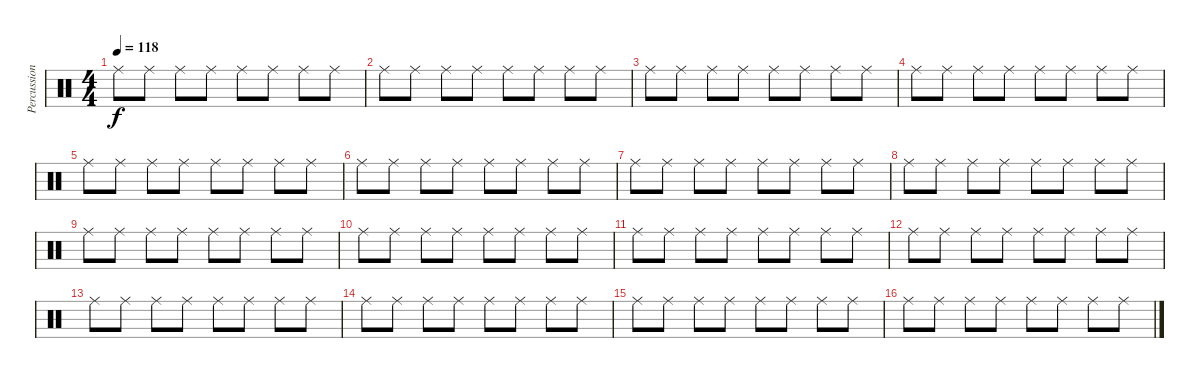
\track ("Percussion" "Percussion") {instrument percussion}
\staff {score}
\articulation defaults
\ts (4 4)
\tempo 118
\clef neutral
\ks c "Ride (middle)".8{dy f} "Ride (middle)".8 "Ride (middle)".8 "Ride (middle)".8 "Ride (middle)".8 "Ride (middle)".8 "Ride (middle)".8 "Ride (middle)".8
|
"Ride (middle)".8 "Ride (middle)".8 "Ride (middle)".8 "Ride (middle)".8 "Ride (middle)".8 "Ride (middle)".8 "Ride (middle)".8 "Ride (middle)".8 |
"Ride (middle)".8 "Ride (middle)".8 "Ride (middle)".8 "Ride (middle)".8 "Ride (middle)".8 "Ride (middle)".8 "Ride (middle)".8 "Ride (middle)".8 |
"Ride (middle)".8 "Ride (middle)".8 "Ride (middle)".8 "Ride (middle)".8 "Ride (middle)".8 "Ride (middle)".8 "Ride (middle)".8 "Ride (middle)".8 |
"Ride (middle)".8 "Ride (middle)".8 "Ride (middle)".8 "Ride (middle)".8 "Ride (middle)".8 "Ride (middle)".8 "Ride (middle)".8 "Ride (middle)".8 |
"Ride (middle)".8 "Ride (middle)".8 "Ride (middle)".8 "Ride (middle)".8 "Ride (middle)".8 "Ride (middle)".8 "Ride (middle)".8 "Ride (middle)".8 |
"Ride (middle)".8 "Ride (middle)".8 "Ride (middle)".8 "Ride (middle)".8 "Ride (middle)".8 "Ride (middle)".8 "Ride (middle)".8 "Ride (middle)".8 |
"Ride (middle)".8 "Ride (middle)".8 "Ride (middle)".8 "Ride (middle)".8 "Ride (middle)".8 "Ride (middle)".8 "Ride (middle)".8 "Ride (middle)".8 |
"Ride (middle)".8 "Ride (middle)".8 "Ride (middle)".8 "Ride (middle)".8 "Ride (middle)".8 "Ride (middle)".8 "Ride (middle)".8 "Ride (middle)".8 |
"Ride (middle)".8 "Ride (middle)".8 "Ride (middle)".8 "Ride (middle)".8 "Ride (middle)".8 "Ride (middle)".8 "Ride (middle)".8 "Ride (middle)".8 |
"Ride (middle)".8 "Ride (middle)".8 "Ride (middle)".8 "Ride (middle)".8 "Ride (middle)".8 "Ride (middle)".8 "Ride (middle)".8 "Ride (middle)".8 |
"Ride (middle)".8 "Ride (middle)".8 "Ride (middle)".8 "Ride (middle)".8 "Ride (middle)".8 "Ride (middle)".8 "Ride (middle)".8 "Ride (middle)".8 |
"Ride (middle)".8 "Ride (middle)".8 "Ride (middle)".8 "Ride (middle)".8 "Ride (middle)".8 "Ride (middle)".8 "Ride (middle)".8 "Ride (middle)".8 |
"Ride (middle)".8 "Ride (middle)".8 "Ride (middle)".8 "Ride (middle)".8 "Ride (middle)".8 "Ride (middle)".8 "Ride (middle)".8 "Ride (middle)".8 |
"Ride (middle)".8 "Ride (middle)".8 "Ride (middle)".8 "Ride (middle)".8 "Ride (middle)".8 "Ride (middle)".8 "Ride (middle)".8 "Ride (middle)".8 |
"Ride (middle)".8 "Ride (middle)".8 "Ride (middle)".8 "Ride (middle)".8 "Ride (middle)".8 "Ride (middle)".8 "Ride (middle)".8 "Ride (middle)".8
